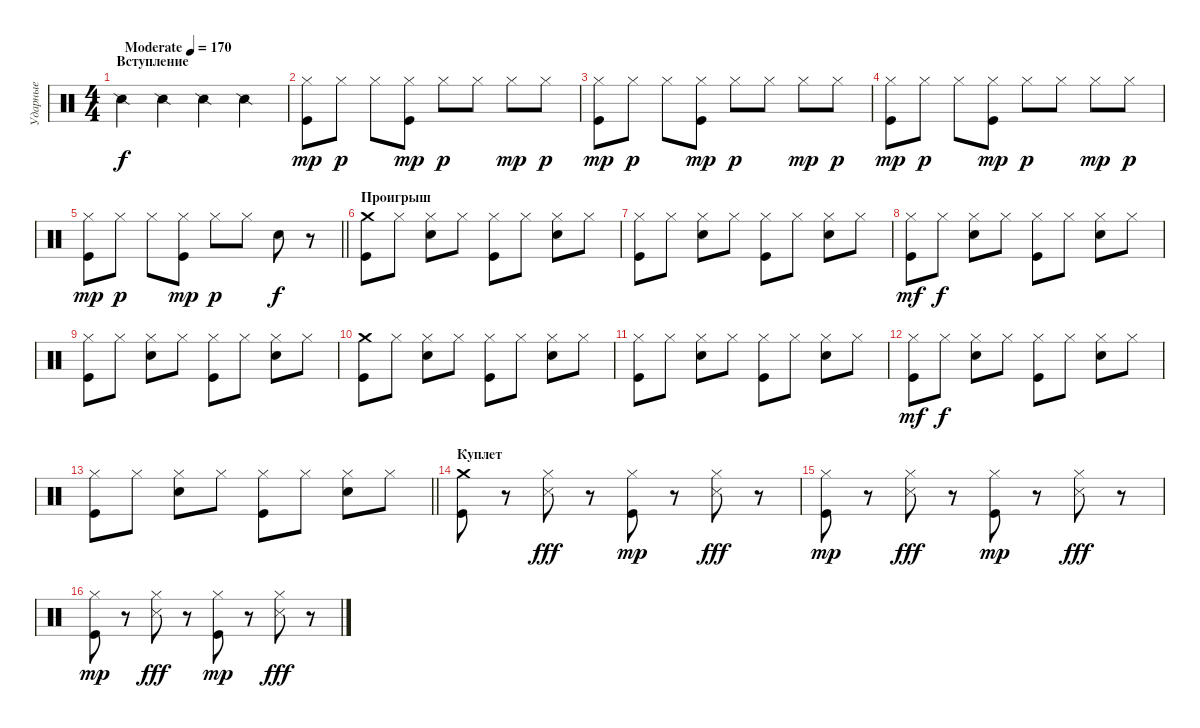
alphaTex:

\track ("Ударные" "Ударные") {instrument percussion}
\staff {score}
\articulation defaults
\ts (4 4)
\section ("" "Вступление")
\tempo (170 "Moderate")
\clef neutral
\ks c "Snare (side stick) 2".4{dy f} "Snare (side stick) 2".4 "Snare (side stick) 2".4 "Snare (side stick) 2".4
|
("Hi-Hat (closed)" "Kick (hit)").8{dy mp} "Hi-Hat (closed)".8{dy p} "Hi-Hat (closed)".8 ("Hi-Hat (closed)" "Kick (hit)").8{dy mp} "Hi-Hat (closed)".8{dy p} "Hi-Hat (closed)".8 "Hi-Hat (closed)".8{dy mp} "Hi-Hat (closed)".8{dy p} |
("Hi-Hat (closed)" "Kick (hit)").8{dy mp} "Hi-Hat (closed)".8{dy p} "Hi-Hat (closed)".8 ("Hi-Hat (closed)" "Kick (hit)").8{dy mp} "Hi-Hat (closed)".8{dy p} "Hi-Hat (closed)".8 "Hi-Hat (closed)".8{dy mp} "Hi-Hat (closed)".8{dy p} |
("Hi-Hat (closed)" "Kick (hit)").8{dy mp} "Hi-Hat (closed)".8{dy p} "Hi-Hat (closed)".8 ("Hi-Hat (closed)" "Kick (hit)").8{dy mp} "Hi-Hat (closed)".8{dy p} "Hi-Hat (closed)".8 "Hi-Hat (closed)".8{dy mp} "Hi-Hat (closed)".8{dy p} |
\barLineRight lightlight
("Hi-Hat (closed)" "Kick (hit)").8{dy mp} "Hi-Hat (closed)".8{dy p} "Hi-Hat (closed)".8 ("Hi-Hat (closed)" "Kick (hit)").8{dy mp} "Hi-Hat (closed)".8{dy p} "Hi-Hat (closed)".8 "Electric Snare (hit)".8{dy f} r.8 |
\section ("" "Проигрыш")
("Crash medium (hit)" "Kick (hit)").8 "Hi-Hat (closed)".8 ("Hi-Hat (closed)" "Electric Snare (hit)").8 "Hi-Hat (closed)".8 ("Hi-Hat (closed)" "Kick (hit)").8 "Hi-Hat (closed)".8 ("Hi-Hat (closed)" "Electric Snare (hit)").8 "Hi-Hat (closed)".8 |
("Hi-Hat (closed)" "Kick (hit)").8 "Hi-Hat (closed)".8 ("Hi-Hat (closed)" "Electric Snare (hit)").8 "Hi-Hat (closed)".8 ("Hi-Hat (closed)" "Kick (hit)").8 "Hi-Hat (closed)".8 ("Hi-Hat (closed)" "Electric Snare (hit)").8 "Hi-Hat (closed)".8 |
("Hi-Hat (closed)" "Kick (hit)").8{dy mf} "Hi-Hat (closed)".8{dy f} ("Hi-Hat (closed)" "Electric Snare (hit)").8 "Hi-Hat (closed)".8 ("Hi-Hat (closed)" "Kick (hit)").8 "Hi-Hat (closed)".8 ("Hi-Hat (closed)" "Electric Snare (hit)").8 "Hi-Hat (closed)".8 |
("Hi-Hat (closed)" "Kick (hit)").8 "Hi-Hat (closed)".8 ("Hi-Hat (closed)" "Electric Snare (hit)").8 "Hi-Hat (closed)".8 ("Hi-Hat (closed)" "Kick (hit)").8 "Hi-Hat (closed)".8 ("Hi-Hat (closed)" "Electric Snare (hit)").8 "Hi-Hat (closed)".8 |
("Crash medium (hit)" "Kick (hit)").8 "Hi-Hat (closed)".8 ("Hi-Hat (closed)" "Electric Snare (hit)").8 "Hi-Hat (closed)".8 ("Hi-Hat (closed)" "Kick (hit)").8 "Hi-Hat (closed)".8 ("Hi-Hat (closed)" "Electric Snare (hit)").8 "Hi-Hat (closed)".8 |
("Hi-Hat (closed)" "Kick (hit)").8 "Hi-Hat (closed)".8 ("Hi-Hat (closed)" "Electric Snare (hit)").8 "Hi-Hat (closed)".8 ("Hi-Hat (closed)" "Kick (hit)").8 "Hi-Hat (closed)".8 ("Hi-Hat (closed)" "Electric Snare (hit)").8 "Hi-Hat (closed)".8 |
("Hi-Hat (closed)" "Kick (hit)").8{dy mf} "Hi-Hat (closed)".8{dy f} ("Hi-Hat (closed)" "Electric Snare (hit)").8 "Hi-Hat (closed)".8 ("Hi-Hat (closed)" "Kick (hit)").8 "Hi-Hat (closed)".8 ("Hi-Hat (closed)" "Electric Snare (hit)").8 "Hi-Hat (closed)".8 |
\barLineRight lightlight
("Hi-Hat (closed)" "Kick (hit)").8 "Hi-Hat (closed)".8 ("Hi-Hat (closed)" "Electric Snare (hit)").8 "Hi-Hat (closed)".8 ("Hi-Hat (closed)" "Kick (hit)").8 "Hi-Hat (closed)".8 ("Hi-Hat (closed)" "Electric Snare (hit)").8 "Hi-Hat (closed)".8 |
\section ("" "Куплет")
("Crash medium (hit)" "Kick (hit)").8 r.8 ("Hi-Hat (closed)" "Metronome (hit)").8{dy fff} r.8 ("Hi-Hat (closed)" "Kick (hit)").8{dy mp} r.8 ("Hi-Hat (closed)" "Metronome (hit)").8{dy fff} r.8 |
("Hi-Hat (closed)" "Kick (hit)").8{dy mp} r.8 ("Hi-Hat (closed)" "Metronome (hit)").8{dy fff} r.8 ("Hi-Hat (closed)" "Kick (hit)").8{dy mp} r.8 ("Hi-Hat (closed)" "Metronome (hit)").8{dy fff} r.8 |
("Hi-Hat (closed)" "Kick (hit)").8{dy mp} r.8 ("Hi-Hat (closed)" "Metronome (hit)").8{dy fff} r.8 ("Hi-Hat (closed)" "Kick (hit)").8{dy mp} r.8 ("Hi-Hat (closed)" "Metronome (hit)").8{dy fff} r.8
